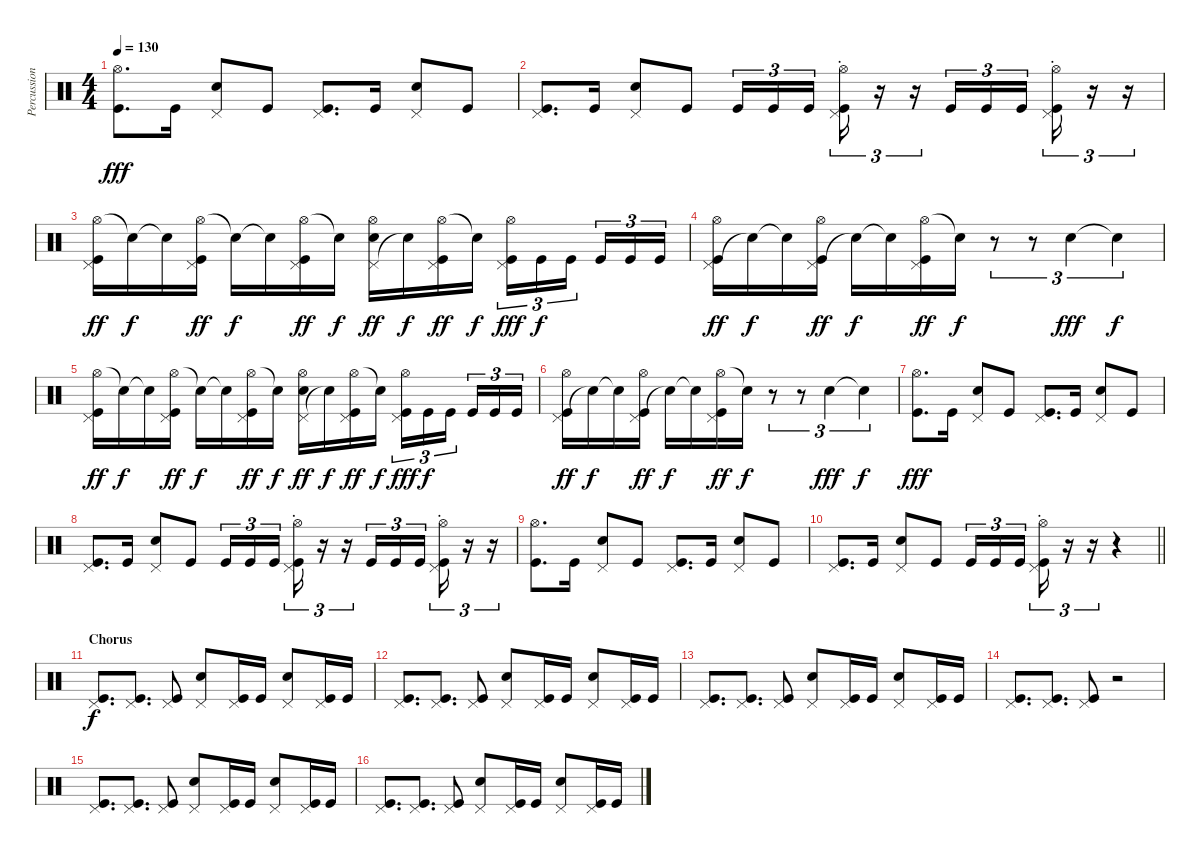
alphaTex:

\track ("Percussion" "Percussion") {instrument percussion}
\staff {score}
\articulation defaults
\ts (4 4)
\tempo 130
\clef neutral
\ks c
("Hi-Hat (open)" "Kick (hit)").8{d dy fff} "Kick (hit)".16 ("Pedal Hi-Hat (hit)" "Electric Snare (hit)").8 "Kick (hit)".8 ("Pedal Hi-Hat (hit)" "Kick (hit)").8{d} "Kick (hit)".16 ("Pedal Hi-Hat (hit)" "Electric Snare (hit)").8 "Kick (hit)".8 |
("Pedal Hi-Hat (hit)" "Kick (hit)").8{d} "Kick (hit)".16 ("Pedal Hi-Hat (hit)" "Electric Snare (hit)").8 "Kick (hit)".8 "Kick (hit)".16{tu (3 2)} "Kick (hit)".16{tu (3 2)} "Kick (hit)".16{tu (3 2) beam splitsecondary} ("Pedal Hi-Hat (hit)" "Hi-Hat (open)"{st} "Kick (hit)").16{tu (3 2)} r.16{tu (3 2)} r.16{tu (3 2)} "Kick (hit)".16{tu (3 2)} "Kick (hit)".16{tu (3 2)} "Kick (hit)".16{tu (3 2) beam splitsecondary} ("Pedal Hi-Hat (hit)" "Hi-Hat (open)"{st} "Kick (hit)").16{tu (3 2)} r.16{tu (3 2)} r.16{tu (3 2)} |
("Hi-Hat (open)" "Pedal Hi-Hat (hit)" "Kick (hit)").16{dy ff} "Snare (hit)"{t}.16{dy f} "Snare (hit)"{t}.16 ("Hi-Hat (open)" "Pedal Hi-Hat (hit)" "Kick (hit)").16{dy ff} "Snare (hit)"{t}.16{dy f} "Snare (hit)"{t}.16 ("Hi-Hat (open)" "Pedal Hi-Hat (hit)" "Kick (hit)").16{dy ff} "Snare (hit)"{t}.16{dy f} ("Pedal Hi-Hat (hit)" "Hi-Hat (open)" "Electric Snare (hit)").16{dy ff} "Snare (hit)"{t}.16{dy f} ("Hi-Hat (open)" "Pedal Hi-Hat (hit)" "Kick (hit)").16{dy ff} "Snare (hit)"{t}.16{dy f} ("Hi-Hat (open)" "Pedal Hi-Hat (hit)" "Kick (hit)").16{tu (3 2) dy fff} "Kick (hit)".16{tu (3 2) dy f} "Kick (hit)".16{tu (3 2) beam splitsecondary} "Kick (hit)".16{tu (3 2)} "Kick (hit)".16{tu (3 2)} "Kick (hit)".16{tu (3 2)} |
("Pedal Hi-Hat (hit)" "Hi-Hat (open)" "Kick (hit)").16{dy ff} "Snare (hit)"{t}.16{dy f} "Snare (hit)"{t}.16 ("Pedal Hi-Hat (hit)" "Hi-Hat (open)" "Kick (hit)").16{dy ff} "Snare (hit)"{t}.16{dy f} "Snare (hit)"{t}.16 ("Hi-Hat (open)" "Pedal Hi-Hat (hit)" "Kick (hit)").16{dy ff} "Snare (hit)"{t}.16{dy f} r.8{tu (3 2)} r.8{tu (3 2)} "Electric Snare (hit)".4{tu (3 2) dy fff} "Snare (hit)"{t}.4{tu (3 2) dy f} |
("Hi-Hat (open)" "Pedal Hi-Hat (hit)" "Kick (hit)").16{dy ff} "Snare (hit)"{t}.16{dy f} "Snare (hit)"{t}.16 ("Hi-Hat (open)" "Pedal Hi-Hat (hit)" "Kick (hit)").16{dy ff} "Snare (hit)"{t}.16{dy f} "Snare (hit)"{t}.16 ("Hi-Hat (open)" "Pedal Hi-Hat (hit)" "Kick (hit)").16{dy ff} "Snare (hit)"{t}.16{dy f} ("Pedal Hi-Hat (hit)" "Hi-Hat (open)" "Electric Snare (hit)").16{dy ff} "Snare (hit)"{t}.16{dy f} ("Hi-Hat (open)" "Pedal Hi-Hat (hit)" "Kick (hit)").16{dy ff} "Snare (hit)"{t}.16{dy f} ("Hi-Hat (open)" "Pedal Hi-Hat (hit)" "Kick (hit)").16{tu (3 2) dy fff} "Kick (hit)".16{tu (3 2) dy f} "Kick (hit)".16{tu (3 2) beam splitsecondary} "Kick (hit)".16{tu (3 2)} "Kick (hit)".16{tu (3 2)} "Kick (hit)".16{tu (3 2)} |
("Pedal Hi-Hat (hit)" "Hi-Hat (open)" "Kick (hit)").16{dy ff} "Snare (hit)"{t}.16{dy f} "Snare (hit)"{t}.16 ("Pedal Hi-Hat (hit)" "Hi-Hat (open)" "Kick (hit)").16{dy ff} "Snare (hit)"{t}.16{dy f} "Snare (hit)"{t}.16 ("Hi-Hat (open)" "Pedal Hi-Hat (hit)" "Kick (hit)").16{dy ff} "Snare (hit)"{t}.16{dy f} r.8{tu (3 2)} r.8{tu (3 2)} "Electric Snare (hit)".4{tu (3 2) dy fff} "Snare (hit)"{t}.4{tu (3 2) dy f} |
("Hi-Hat (open)" "Kick (hit)").8{d dy fff} "Kick (hit)".16 ("Pedal Hi-Hat (hit)" "Electric Snare (hit)").8 "Kick (hit)".8 ("Pedal Hi-Hat (hit)" "Kick (hit)").8{d} "Kick (hit)".16 ("Pedal Hi-Hat (hit)" "Electric Snare (hit)").8 "Kick (hit)".8 |
("Pedal Hi-Hat (hit)" "Kick (hit)").8{d} "Kick (hit)".16 ("Pedal Hi-Hat (hit)" "Electric Snare (hit)").8 "Kick (hit)".8 "Kick (hit)".16{tu (3 2)} "Kick (hit)".16{tu (3 2)} "Kick (hit)".16{tu (3 2) beam splitsecondary} ("Pedal Hi-Hat (hit)" "Hi-Hat (open)"{st} "Kick (hit)").16{tu (3 2)} r.16{tu (3 2)} r.16{tu (3 2)} "Kick (hit)".16{tu (3 2)} "Kick (hit)".16{tu (3 2)} "Kick (hit)".16{tu (3 2) beam splitsecondary} ("Pedal Hi-Hat (hit)" "Hi-Hat (open)"{st} "Kick (hit)").16{tu (3 2)} r.16{tu (3 2)} r.16{tu (3 2)} |
("Hi-Hat (open)" "Kick (hit)").8{d} "Kick (hit)".16 ("Pedal Hi-Hat (hit)" "Electric Snare (hit)").8 "Kick (hit)".8 ("Pedal Hi-Hat (hit)" "Kick (hit)").8{d} "Kick (hit)".16 ("Pedal Hi-Hat (hit)" "Electric Snare (hit)").8 "Kick (hit)".8 |
\barLineRight lightlight
("Pedal Hi-Hat (hit)" "Kick (hit)").8{d} "Kick (hit)".16 ("Pedal Hi-Hat (hit)" "Electric Snare (hit)").8 "Kick (hit)".8 "Kick (hit)".16{tu (3 2)} "Kick (hit)".16{tu (3 2)} "Kick (hit)".16{tu (3 2) beam splitsecondary} ("Pedal Hi-Hat (hit)" "Hi-Hat (open)"{st} "Kick (hit)").16{tu (3 2)} r.16{tu (3 2)} r.16{tu (3 2)} r.4 |
\section ("" "Chorus")
("Pedal Hi-Hat (hit)" "Kick (hit)").8{d dy f} ("Pedal Hi-Hat (hit)" "Kick (hit)").8{d} ("Pedal Hi-Hat (hit)" "Kick (hit)").8 ("Pedal Hi-Hat (hit)" "Electric Snare (hit)").8 ("Pedal Hi-Hat (hit)" "Kick (hit)").16 "Kick (hit)".16 ("Pedal Hi-Hat (hit)" "Electric Snare (hit)").8 ("Pedal Hi-Hat (hit)" "Kick (hit)").16 "Kick (hit)".16 |
("Pedal Hi-Hat (hit)" "Kick (hit)").8{d} ("Pedal Hi-Hat (hit)" "Kick (hit)").8{d} ("Pedal Hi-Hat (hit)" "Kick (hit)").8 ("Pedal Hi-Hat (hit)" "Electric Snare (hit)").8 ("Pedal Hi-Hat (hit)" "Kick (hit)").16 "Kick (hit)".16 ("Pedal Hi-Hat (hit)" "Electric Snare (hit)").8 ("Pedal Hi-Hat (hit)" "Kick (hit)").16 "Kick (hit)".16 |
("Pedal Hi-Hat (hit)" "Kick (hit)").8{d} ("Pedal Hi-Hat (hit)" "Kick (hit)").8{d} ("Pedal Hi-Hat (hit)" "Kick (hit)").8 ("Pedal Hi-Hat (hit)" "Electric Snare (hit)").8 ("Pedal Hi-Hat (hit)" "Kick (hit)").16 "Kick (hit)".16 ("Pedal Hi-Hat (hit)" "Electric Snare (hit)").8 ("Pedal Hi-Hat (hit)" "Kick (hit)").16 "Kick (hit)".16 |
("Pedal Hi-Hat (hit)" "Kick (hit)").8{d} ("Pedal Hi-Hat (hit)" "Kick (hit)").8{d} ("Pedal Hi-Hat (hit)" "Kick (hit)").8 r.2 |
("Pedal Hi-Hat (hit)" "Kick (hit)").8{d} ("Pedal Hi-Hat (hit)" "Kick (hit)").8{d} ("Pedal Hi-Hat (hit)" "Kick (hit)").8 ("Pedal Hi-Hat (hit)" "Electric Snare (hit)").8 ("Pedal Hi-Hat (hit)" "Kick (hit)").16 "Kick (hit)".16 ("Pedal Hi-Hat (hit)" "Electric Snare (hit)").8 ("Pedal Hi-Hat (hit)" "Kick (hit)").16 "Kick (hit)".16 |
("Pedal Hi-Hat (hit)" "Kick (hit)").8{d} ("Pedal Hi-Hat (hit)" "Kick (hit)").8{d} ("Pedal Hi-Hat (hit)" "Kick (hit)").8 ("Pedal Hi-Hat (hit)" "Electric Snare (hit)").8 ("Pedal Hi-Hat (hit)" "Kick (hit)").16 "Kick (hit)".16 ("Pedal Hi-Hat (hit)" "Electric Snare (hit)").8 ("Pedal Hi-Hat (hit)" "Kick (hit)").16 "Kick (hit)".16
